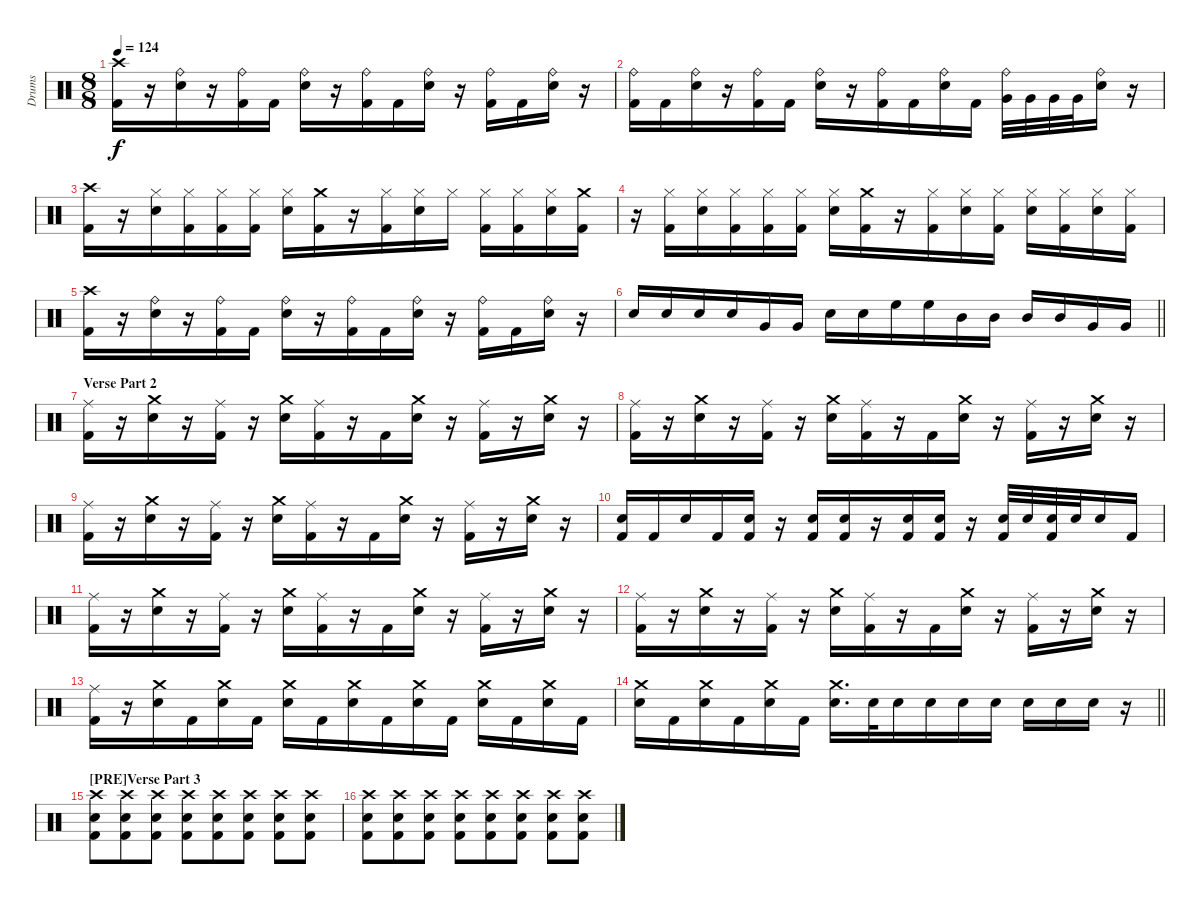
\track ("Drums" "Drums") {instrument percussion}
\staff {score}
\articulation defaults
\ts (8 8)
\tempo 124
\clef neutral
\ks c
("Crash high (hit)" "Kick (hit) 2").16{dy f} r.16 ("Ride (bell)" "Electric Snare (hit)").16 r.16 ("Ride (bell)" "Kick (hit) 2").16 "Kick (hit) 2".16 ("Ride (bell)" "Electric Snare (hit)").16 r.16 ("Ride (bell)" "Kick (hit) 2").16 "Kick (hit) 2".16 ("Ride (bell)" "Electric Snare (hit)").16 r.16 ("Ride (bell)" "Kick (hit) 2").16 "Kick (hit) 2".16 ("Ride (bell)" "Electric Snare (hit)").16 r.16 |
("Ride (bell)" "Kick (hit) 2").16 "Kick (hit) 2".16 ("Ride (bell)" "Electric Snare (hit)").16 r.16 ("Ride (bell)" "Kick (hit) 2").16 "Kick (hit) 2".16 ("Ride (bell)" "Electric Snare (hit)").16 r.16 ("Ride (bell)" "Kick (hit) 2").16 "Kick (hit) 2".16 ("Ride (bell)" "Electric Snare (hit)").16 "Kick (hit) 2".16 ("Ride (bell)" "Very Low Tom (hit)").32 "Very Low Tom (hit)".32 "Very Low Tom (hit)".32 "Very Low Tom (hit)".32 ("Ride (bell)" "Electric Snare (hit)").16 r.16 |
("Crash high (hit)" "Kick (hit) 2").16 r.16 ("Hi-Hat (closed)" "Electric Snare (hit)").16 ("Hi-Hat (closed)" "Kick (hit) 2").16 ("Hi-Hat (closed)" "Kick (hit) 2").16 ("Hi-Hat (closed)" "Kick (hit) 2").16 ("Hi-Hat (closed)" "Electric Snare (hit)").16 ("Crash medium (hit)" "Kick (hit) 2").16 r.16 ("Hi-Hat (closed)" "Kick (hit) 2").16 ("Hi-Hat (closed)" "Electric Snare (hit)").16 "Hi-Hat (closed)".16 ("Hi-Hat (closed)" "Kick (hit) 2").16 ("Hi-Hat (closed)" "Kick (hit) 2").16 ("Hi-Hat (closed)" "Electric Snare (hit)").16 ("Crash medium (hit)" "Kick (hit) 2").16 |
r.16 ("Hi-Hat (closed)" "Kick (hit) 2").16 ("Hi-Hat (closed)" "Electric Snare (hit)").16 ("Hi-Hat (closed)" "Kick (hit) 2").16 ("Hi-Hat (closed)" "Kick (hit) 2").16 ("Hi-Hat (closed)" "Kick (hit) 2").16 ("Hi-Hat (closed)" "Electric Snare (hit)").16 ("Crash medium (hit)" "Kick (hit) 2").16 r.16 ("Hi-Hat (closed)" "Kick (hit) 2").16 ("Hi-Hat (closed)" "Electric Snare (hit)").16 ("Hi-Hat (closed)" "Kick (hit) 2").16 ("Hi-Hat (closed)" "Electric Snare (hit)").16 ("Hi-Hat (closed)" "Kick (hit) 2").16 ("Hi-Hat (closed)" "Electric Snare (hit)").16 ("Hi-Hat (closed)" "Kick (hit) 2").16 |
("Crash high (hit)" "Kick (hit) 2").16 r.16 ("Ride (bell)" "Electric Snare (hit)").16 r.16 ("Ride (bell)" "Kick (hit) 2").16 "Kick (hit) 2".16 ("Ride (bell)" "Electric Snare (hit)").16 r.16 ("Ride (bell)" "Kick (hit) 2").16 "Kick (hit) 2".16 ("Ride (bell)" "Electric Snare (hit)").16 r.16 ("Ride (bell)" "Kick (hit) 2").16 "Kick (hit) 2".16 ("Ride (bell)" "Electric Snare (hit)").16 r.16 |
\barLineRight lightlight "Electric Snare (hit)".16 "Electric Snare (hit)".16 "Electric Snare (hit)".16 "Electric Snare (hit)".16 "Very Low Tom (hit)".16 "Very Low Tom (hit)".16 "Electric Snare (hit)".16 "Electric Snare (hit)".16 "High Floor Tom (hit)".16 "High Floor Tom (hit)".16 "Mid Tom (hit)".16 "Mid Tom (hit)".16 "Mid Tom (hit)".16 "Mid Tom (hit)".16 "Very Low Tom (hit)".16 "Very Low Tom (hit)".16
|
\section ("" "Verse Part 2")
("Ride (middle)" "Kick (hit) 2").16 r.16 ("Crash medium (hit)" "Electric Snare (hit)").16 r.16 ("Ride (middle)" "Kick (hit) 2").16 r.16 ("Crash medium (hit)" "Electric Snare (hit)").16 ("Ride (middle)" "Kick (hit) 2").16 r.16 "Kick (hit) 2".16 ("Crash medium (hit)" "Electric Snare (hit)").16 r.16 ("Ride (middle)" "Kick (hit) 2").16 r.16 ("Crash medium (hit)" "Electric Snare (hit)").16 r.16 |
("Ride (middle)" "Kick (hit) 2").16 r.16 ("Crash medium (hit)" "Electric Snare (hit)").16 r.16 ("Ride (middle)" "Kick (hit) 2").16 r.16 ("Crash medium (hit)" "Electric Snare (hit)").16 ("Ride (middle)" "Kick (hit) 2").16 r.16 "Kick (hit) 2".16 ("Crash medium (hit)" "Electric Snare (hit)").16 r.16 ("Ride (middle)" "Kick (hit) 2").16 r.16 ("Crash medium (hit)" "Electric Snare (hit)").16 r.16 |
("Ride (middle)" "Kick (hit) 2").16 r.16 ("Crash medium (hit)" "Electric Snare (hit)").16 r.16 ("Ride (middle)" "Kick (hit) 2").16 r.16 ("Crash medium (hit)" "Electric Snare (hit)").16 ("Ride (middle)" "Kick (hit) 2").16 r.16 "Kick (hit) 2".16 ("Crash medium (hit)" "Electric Snare (hit)").16 r.16 ("Ride (middle)" "Kick (hit) 2").16 r.16 ("Crash medium (hit)" "Electric Snare (hit)").16 r.16 |
("Electric Snare (hit)" "Kick (hit) 2").16 "Kick (hit) 2".16 "Electric Snare (hit)".16 "Kick (hit) 2".16 ("Electric Snare (hit)" "Kick (hit) 2").16 r.16 ("Electric Snare (hit)" "Kick (hit) 2").16 ("Electric Snare (hit)" "Kick (hit) 2").16 r.16 ("Electric Snare (hit)" "Kick (hit) 2").16 ("Electric Snare (hit)" "Kick (hit) 2").16 r.16 ("Electric Snare (hit)" "Kick (hit) 2").32 "Electric Snare (hit)".32 ("Electric Snare (hit)" "Kick (hit) 2").32 "Electric Snare (hit)".32 "Electric Snare (hit)".16 "Kick (hit) 2".16 |
("Ride (middle)" "Kick (hit) 2").16 r.16 ("Crash medium (hit)" "Electric Snare (hit)").16 r.16 ("Ride (middle)" "Kick (hit) 2").16 r.16 ("Crash medium (hit)" "Electric Snare (hit)").16 ("Ride (middle)" "Kick (hit) 2").16 r.16 "Kick (hit) 2".16 ("Crash medium (hit)" "Electric Snare (hit)").16 r.16 ("Ride (middle)" "Kick (hit) 2").16 r.16 ("Crash medium (hit)" "Electric Snare (hit)").16 r.16 |
("Ride (middle)" "Kick (hit) 2").16 r.16 ("Crash medium (hit)" "Electric Snare (hit)").16 r.16 ("Ride (middle)" "Kick (hit) 2").16 r.16 ("Crash medium (hit)" "Electric Snare (hit)").16 ("Ride (middle)" "Kick (hit) 2").16 r.16 "Kick (hit) 2".16 ("Crash medium (hit)" "Electric Snare (hit)").16 r.16 ("Ride (middle)" "Kick (hit) 2").16 r.16 ("Crash medium (hit)" "Electric Snare (hit)").16 r.16 |
("Ride (middle)" "Kick (hit) 2").16 r.16 ("Crash medium (hit)" "Electric Snare (hit)").16 "Kick (hit) 2".16 ("Crash medium (hit)" "Electric Snare (hit)").16 "Kick (hit) 2".16 ("Crash medium (hit)" "Electric Snare (hit)").16 "Kick (hit) 2".16 ("Crash medium (hit)" "Electric Snare (hit)").16 "Kick (hit) 2".16 ("Crash medium (hit)" "Electric Snare (hit)").16 "Kick (hit) 2".16 ("Crash medium (hit)" "Electric Snare (hit)").16 "Kick (hit) 2".16 ("Crash medium (hit)" "Electric Snare (hit)").16 "Kick (hit) 2".16 |
\barLineRight lightlight
("Crash medium (hit)" "Electric Snare (hit)").16 "Kick (hit) 2".16 ("Crash medium (hit)" "Electric Snare (hit)").16 "Kick (hit) 2".16 ("Crash medium (hit)" "Electric Snare (hit)").16 "Kick (hit) 2".16 ("Crash medium (hit)" "Electric Snare (hit)").16{d} "Electric Snare (hit)".32 "Electric Snare (hit)".16 "Electric Snare (hit)".16 "Electric Snare (hit)".16 "Electric Snare (hit)".16 "Electric Snare (hit)".16 "Electric Snare (hit)".16 "Electric Snare (hit)".16 r.16 |
\section ("" "[PRE]Verse Part 3")
("Crash high (hit)" "Electric Snare (hit)" "Kick (hit) 2").8 ("Crash high (hit)" "Electric Snare (hit)" "Kick (hit) 2").8 ("Crash high (hit)" "Electric Snare (hit)" "Kick (hit) 2").8 ("Crash high (hit)" "Electric Snare (hit)" "Kick (hit) 2").8 ("Crash high (hit)" "Electric Snare (hit)" "Kick (hit) 2").8 ("Crash high (hit)" "Electric Snare (hit)" "Kick (hit) 2").8 ("Crash high (hit)" "Electric Snare (hit)" "Kick (hit) 2").8 ("Crash high (hit)" "Electric Snare (hit)" "Kick (hit) 2").8 |
("Crash high (hit)" "Electric Snare (hit)" "Kick (hit) 2").8 ("Crash high (hit)" "Electric Snare (hit)" "Kick (hit) 2").8 ("Crash high (hit)" "Electric Snare (hit)" "Kick (hit) 2").8 ("Crash high (hit)" "Electric Snare (hit)" "Kick (hit) 2").8 ("Crash high (hit)" "Electric Snare (hit)" "Kick (hit) 2").8 ("Crash high (hit)" "Electric Snare (hit)" "Kick (hit) 2").8 ("Crash high (hit)" "Electric Snare (hit)" "Kick (hit) 2").8 ("Crash high (hit)" "Electric Snare (hit)" "Kick (hit) 2").8
